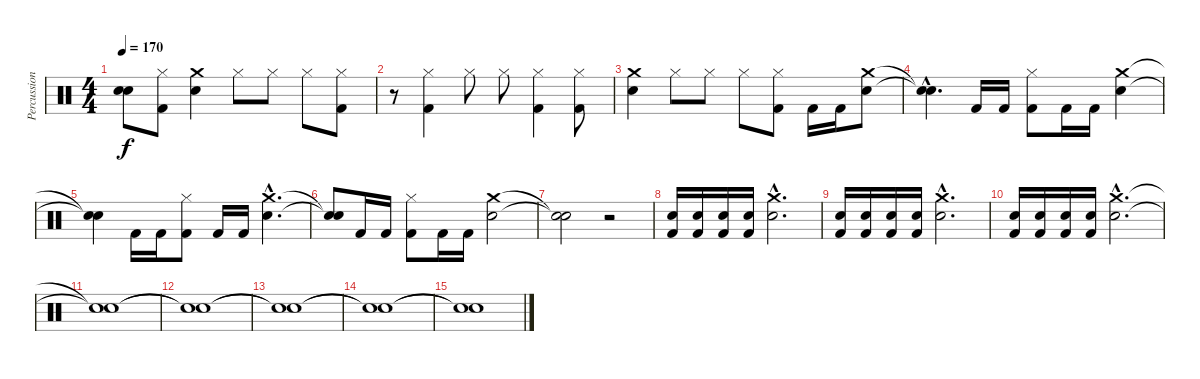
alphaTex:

\track ("Percussions" "Percussion") {instrument percussion}
\staff {score}
\articulation defaults
\ts (4 4)
\tempo 170
\clef neutral
\ks c
("Snare (hit)"{t} "Snare (hit)"{t}).8{dy f} ("Hi-Hat (closed)" "Kick (hit) 2").8 ("Snare (hit) 2" "Crash medium (hit)").4 "Hi-Hat (closed)".8 "Hi-Hat (closed)".8 "Hi-Hat (closed)".8 ("Hi-Hat (closed)" "Kick (hit) 2").8 |
r.8 ("Hi-Hat (closed)" "Kick (hit) 2").4 "Hi-Hat (closed)".8 "Hi-Hat (closed)".8 ("Hi-Hat (closed)" "Kick (hit) 2").4 ("Hi-Hat (closed)" "Kick (hit) 2").8 |
("Snare (hit) 2" "Crash medium (hit)").4 "Hi-Hat (closed)".8 "Hi-Hat (closed)".8 "Hi-Hat (closed)".8 ("Hi-Hat (closed)" "Kick (hit) 2").8 "Kick (hit) 2".16 "Kick (hit) 2".16 ("Snare (hit) 2" "Crash medium (hit)").8 |
("Snare (hit)"{hac t} "Snare (hit)"{hac t}).4{d} "Kick (hit) 2".16 "Kick (hit) 2".16 ("Hi-Hat (closed)" "Kick (hit) 2").8 "Kick (hit) 2".16 "Kick (hit) 2".16 ("Snare (hit) 2" "Crash medium (hit)").4 |
("Snare (hit)"{t} "Snare (hit)"{t}).4 "Kick (hit) 2".16 "Kick (hit) 2".16 ("Hi-Hat (closed)" "Kick (hit) 2").8 "Kick (hit) 2".16 "Kick (hit) 2".16 ("Snare (hit) 2"{hac} "Crash medium (hit)"{hac}).4{d} |
("Snare (hit)"{t} "Snare (hit)"{t}).8 "Kick (hit) 2".16 "Kick (hit) 2".16 ("Hi-Hat (closed)" "Kick (hit) 2").8 "Kick (hit) 2".16 "Kick (hit) 2".16 ("Snare (hit) 2" "Crash medium (hit)").2 |
("Snare (hit)"{t} "Snare (hit)"{t}).2 r.2 |
("Snare (hit) 2" "Kick (hit) 2").16 ("Snare (hit) 2" "Kick (hit) 2").16 ("Snare (hit) 2" "Kick (hit) 2").16 ("Snare (hit) 2" "Kick (hit) 2").16 ("Snare (hit) 2"{hac} "Crash medium (hit)"{hac}).2{d} |
("Snare (hit) 2" "Kick (hit) 2").16 ("Snare (hit) 2" "Kick (hit) 2").16 ("Snare (hit) 2" "Kick (hit) 2").16 ("Snare (hit) 2" "Kick (hit) 2").16 ("Snare (hit) 2"{hac} "Crash medium (hit)"{hac}).2{d} |
("Snare (hit) 2" "Kick (hit) 2").16 ("Snare (hit) 2" "Kick (hit) 2").16 ("Snare (hit) 2" "Kick (hit) 2").16 ("Snare (hit) 2" "Kick (hit) 2").16 ("Snare (hit) 2"{hac} "Crash medium (hit)"{hac}).2{d} |
("Snare (hit)"{t} "Snare (hit)"{t}).1 |
("Snare (hit)"{t} "Snare (hit)"{t}).1 |
("Snare (hit)"{t} "Snare (hit)"{t}).1 |
("Snare (hit)"{t} "Snare (hit)"{t}).1 |
("Snare (hit)"{t} "Snare (hit)"{t}).1
